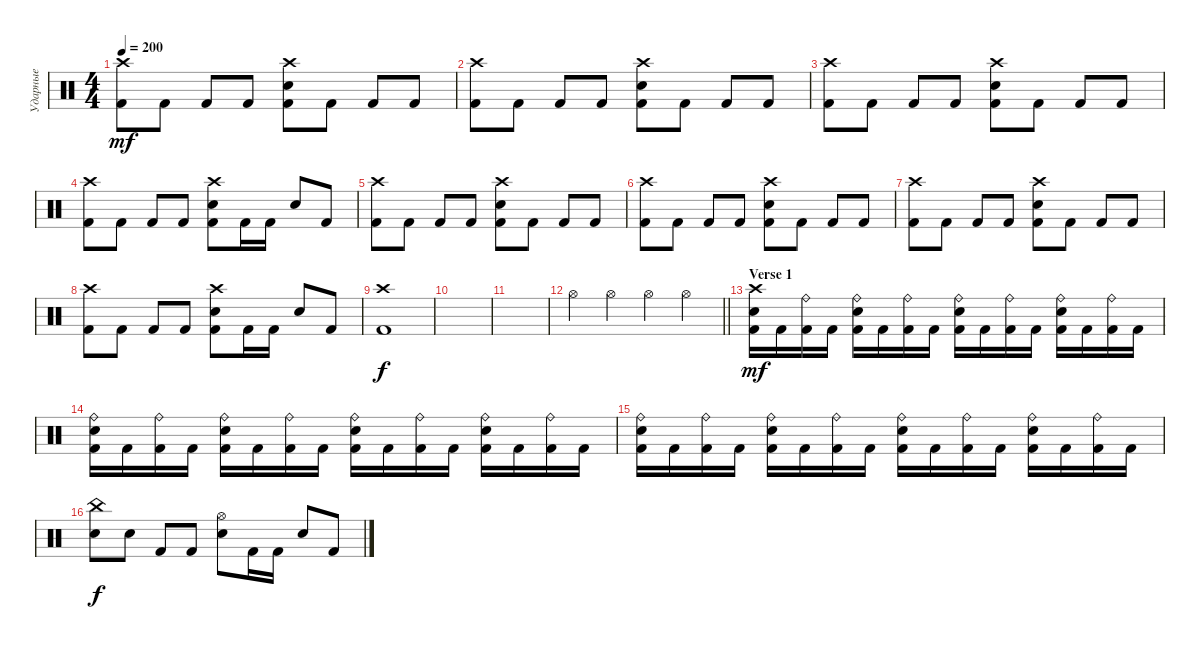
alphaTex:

\track ("Ударные" "Ударные") {instrument percussion}
\staff {score}
\articulation defaults
\ts (4 4)
\tempo 200
\clef neutral
\ks c
("Crash high (hit)" "Kick (hit) 2").8{dy mf} "Kick (hit) 2".8 "Kick (hit) 2".8 "Kick (hit) 2".8 ("Crash high (hit)" "Snare (hit) 2" "Kick (hit) 2").8 "Kick (hit) 2".8 "Kick (hit) 2".8 "Kick (hit) 2".8 |
("Crash high (hit)" "Kick (hit) 2").8 "Kick (hit) 2".8 "Kick (hit) 2".8 "Kick (hit) 2".8 ("Crash high (hit)" "Snare (hit) 2" "Kick (hit) 2").8 "Kick (hit) 2".8 "Kick (hit) 2".8 "Kick (hit) 2".8 |
("Crash high (hit)" "Kick (hit) 2").8 "Kick (hit) 2".8 "Kick (hit) 2".8 "Kick (hit) 2".8 ("Crash high (hit)" "Snare (hit) 2" "Kick (hit) 2").8 "Kick (hit) 2".8 "Kick (hit) 2".8 "Kick (hit) 2".8 |
("Crash high (hit)" "Kick (hit) 2").8 "Kick (hit) 2".8 "Kick (hit) 2".8 "Kick (hit) 2".8 ("Crash high (hit)" "Snare (hit) 2" "Kick (hit) 2").8 "Kick (hit) 2".16 "Kick (hit) 2".16 "Snare (hit) 2".8 "Kick (hit) 2".8 |
("Crash high (hit)" "Kick (hit) 2").8 "Kick (hit) 2".8 "Kick (hit) 2".8 "Kick (hit) 2".8 ("Crash high (hit)" "Snare (hit) 2" "Kick (hit) 2").8 "Kick (hit) 2".8 "Kick (hit) 2".8 "Kick (hit) 2".8 |
("Crash high (hit)" "Kick (hit) 2").8 "Kick (hit) 2".8 "Kick (hit) 2".8 "Kick (hit) 2".8 ("Crash high (hit)" "Snare (hit) 2" "Kick (hit) 2").8 "Kick (hit) 2".8 "Kick (hit) 2".8 "Kick (hit) 2".8 |
("Crash high (hit)" "Kick (hit) 2").8 "Kick (hit) 2".8 "Kick (hit) 2".8 "Kick (hit) 2".8 ("Crash high (hit)" "Snare (hit) 2" "Kick (hit) 2").8 "Kick (hit) 2".8 "Kick (hit) 2".8 "Kick (hit) 2".8 |
("Crash high (hit)" "Kick (hit) 2").8 "Kick (hit) 2".8 "Kick (hit) 2".8 "Kick (hit) 2".8 ("Crash high (hit)" "Snare (hit) 2" "Kick (hit) 2").8 "Kick (hit) 2".16 "Kick (hit) 2".16 "Snare (hit) 2".8 "Kick (hit) 2".8 |
("Crash high (hit)" "Kick (hit) 2").1{dy f} |
|
|
\barLineRight lightlight "Hi-Hat (open)".4 "Hi-Hat (open)".4 "Hi-Hat (open)".4 "Hi-Hat (open)".4
|
\section ("" "Verse 1")
("Crash high (hit)" "Snare (hit) 2" "Kick (hit) 2").16{dy mf} "Kick (hit) 2".16 ("Ride (bell)" "Kick (hit) 2").16 "Kick (hit) 2".16 ("Ride (bell)" "Snare (hit) 2" "Kick (hit) 2").16 "Kick (hit) 2".16 ("Ride (bell)" "Kick (hit) 2").16 "Kick (hit) 2".16 ("Ride (bell)" "Snare (hit) 2" "Kick (hit) 2").16 "Kick (hit) 2".16 ("Ride (bell)" "Kick (hit) 2").16 "Kick (hit) 2".16 ("Ride (bell)" "Snare (hit) 2" "Kick (hit) 2").16 "Kick (hit) 2".16 ("Ride (bell)" "Kick (hit) 2").16 "Kick (hit) 2".16 |
("Ride (bell)" "Snare (hit) 2" "Kick (hit) 2").16 "Kick (hit) 2".16 ("Ride (bell)" "Kick (hit) 2").16 "Kick (hit) 2".16 ("Ride (bell)" "Snare (hit) 2" "Kick (hit) 2").16 "Kick (hit) 2".16 ("Ride (bell)" "Kick (hit) 2").16 "Kick (hit) 2".16 ("Ride (bell)" "Snare (hit) 2" "Kick (hit) 2").16 "Kick (hit) 2".16 ("Ride (bell)" "Kick (hit) 2").16 "Kick (hit) 2".16 ("Ride (bell)" "Snare (hit) 2" "Kick (hit) 2").16 "Kick (hit) 2".16 ("Ride (bell)" "Kick (hit) 2").16 "Kick (hit) 2".16 |
("Ride (bell)" "Snare (hit) 2" "Kick (hit) 2").16 "Kick (hit) 2".16 ("Ride (bell)" "Kick (hit) 2").16 "Kick (hit) 2".16 ("Ride (bell)" "Snare (hit) 2" "Kick (hit) 2").16 "Kick (hit) 2".16 ("Ride (bell)" "Kick (hit) 2").16 "Kick (hit) 2".16 ("Ride (bell)" "Snare (hit) 2" "Kick (hit) 2").16 "Kick (hit) 2".16 ("Ride (bell)" "Kick (hit) 2").16 "Kick (hit) 2".16 ("Ride (bell)" "Snare (hit) 2" "Kick (hit) 2").16 "Kick (hit) 2".16 ("Ride (bell)" "Kick (hit) 2").16 "Kick (hit) 2".16 |
("China (hit)" "Snare (hit) 2").8{dy f} "Snare (hit) 2".8 "Kick (hit) 2".8 "Kick (hit) 2".8 ("Hi-Hat (open)" "Snare (hit) 2").8 "Kick (hit) 2".16 "Kick (hit) 2".16 "Snare (hit) 2".8 "Kick (hit) 2".8
